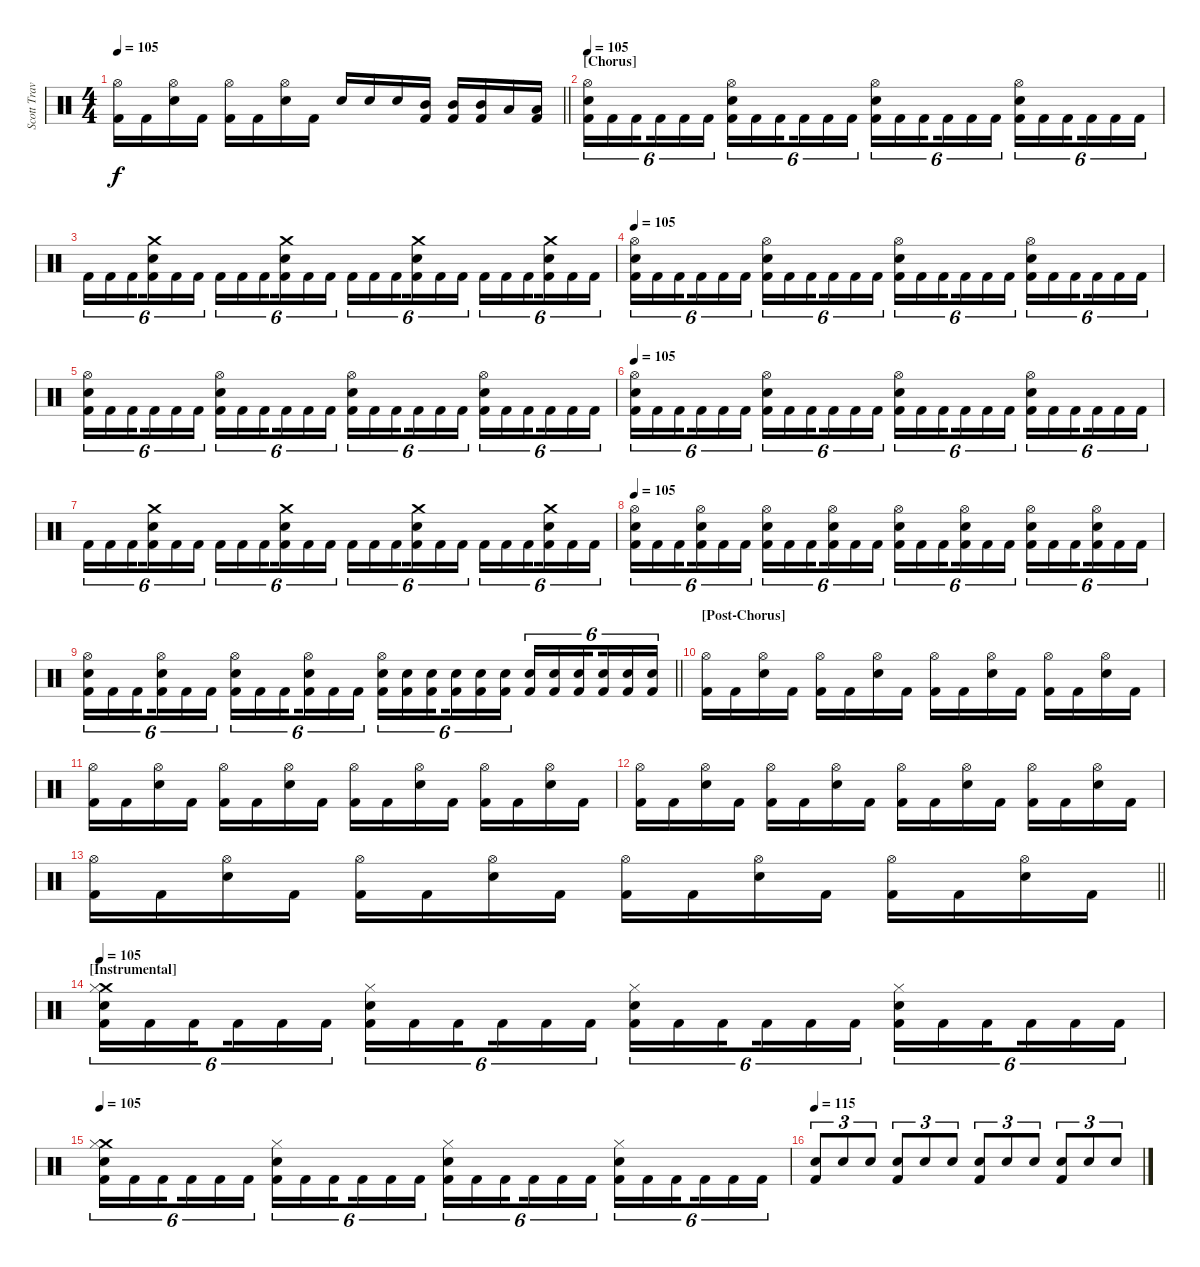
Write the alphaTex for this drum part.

\track ("Scott Travis" "Scott Trav") {instrument percussion}
\staff {score}
\articulation defaults
\ts (4 4)
\tempo 105
\clef neutral
\barLineRight lightlight
\ks c
("Hi-Hat (open)" "Kick (hit) 2").16{dy f} "Kick (hit) 2".16 ("Hi-Hat (open)" "Snare (hit) 2").16 "Kick (hit) 2".16 ("Hi-Hat (open)" "Kick (hit) 2").16 "Kick (hit) 2".16 ("Hi-Hat (open)" "Snare (hit) 2").16 "Kick (hit) 2".16 "Snare (hit) 2".16 "Snare (hit) 2".16 "Snare (hit) 2".16 ("Mid Tom (hit)" "Kick (hit) 2").16 ("Mid Tom (hit)" "Kick (hit) 2").16 ("Mid Tom (hit)" "Kick (hit) 2").16 "Low Tom (hit)".16 ("Low Tom (hit)" "Kick (hit) 2").16 |
\section ("" "[Chorus]")
\tempo 105
("Hi-Hat (open)" "Snare (hit) 2" "Kick (hit) 2").16{tu (6 4)} "Kick (hit) 2".16{tu (6 4)} "Kick (hit) 2".16{tu (6 4) beam splitsecondary} "Kick (hit) 2".16{tu (6 4)} "Kick (hit) 2".16{tu (6 4)} "Kick (hit) 2".16{tu (6 4)} ("Hi-Hat (open)" "Snare (hit) 2" "Kick (hit) 2").16{tu (6 4)} "Kick (hit) 2".16{tu (6 4)} "Kick (hit) 2".16{tu (6 4) beam splitsecondary} "Kick (hit) 2".16{tu (6 4)} "Kick (hit) 2".16{tu (6 4)} "Kick (hit) 2".16{tu (6 4)} ("Hi-Hat (open)" "Snare (hit) 2" "Kick (hit) 2").16{tu (6 4)} "Kick (hit) 2".16{tu (6 4)} "Kick (hit) 2".16{tu (6 4) beam splitsecondary} "Kick (hit) 2".16{tu (6 4)} "Kick (hit) 2".16{tu (6 4)} "Kick (hit) 2".16{tu (6 4)} ("Hi-Hat (open)" "Snare (hit) 2" "Kick (hit) 2").16{tu (6 4)} "Kick (hit) 2".16{tu (6 4)} "Kick (hit) 2".16{tu (6 4) beam splitsecondary} "Kick (hit) 2".16{tu (6 4)} "Kick (hit) 2".16{tu (6 4)} "Kick (hit) 2".16{tu (6 4)} |
"Kick (hit) 2".16{tu (6 4)} "Kick (hit) 2".16{tu (6 4)} "Kick (hit) 2".16{tu (6 4) beam splitsecondary} ("Crash medium (hit)" "Snare (hit) 2" "Kick (hit) 2").16{tu (6 4)} "Kick (hit) 2".16{tu (6 4)} "Kick (hit) 2".16{tu (6 4)} "Kick (hit) 2".16{tu (6 4)} "Kick (hit) 2".16{tu (6 4)} "Kick (hit) 2".16{tu (6 4) beam splitsecondary} ("Crash medium (hit)" "Snare (hit) 2" "Kick (hit) 2").16{tu (6 4)} "Kick (hit) 2".16{tu (6 4)} "Kick (hit) 2".16{tu (6 4)} "Kick (hit) 2".16{tu (6 4)} "Kick (hit) 2".16{tu (6 4)} "Kick (hit) 2".16{tu (6 4) beam splitsecondary} ("Crash medium (hit)" "Snare (hit) 2" "Kick (hit) 2").16{tu (6 4)} "Kick (hit) 2".16{tu (6 4)} "Kick (hit) 2".16{tu (6 4)} "Kick (hit) 2".16{tu (6 4)} "Kick (hit) 2".16{tu (6 4)} "Kick (hit) 2".16{tu (6 4) beam splitsecondary} ("Snare (hit) 2" "Crash medium (hit)" "Kick (hit) 2").16{tu (6 4)} "Kick (hit) 2".16{tu (6 4)} "Kick (hit) 2".16{tu (6 4)} |
\tempo 105
("Hi-Hat (open)" "Snare (hit) 2" "Kick (hit) 2").16{tu (6 4)} "Kick (hit) 2".16{tu (6 4)} "Kick (hit) 2".16{tu (6 4) beam splitsecondary} "Kick (hit) 2".16{tu (6 4)} "Kick (hit) 2".16{tu (6 4)} "Kick (hit) 2".16{tu (6 4)} ("Hi-Hat (open)" "Snare (hit) 2" "Kick (hit) 2").16{tu (6 4)} "Kick (hit) 2".16{tu (6 4)} "Kick (hit) 2".16{tu (6 4) beam splitsecondary} "Kick (hit) 2".16{tu (6 4)} "Kick (hit) 2".16{tu (6 4)} "Kick (hit) 2".16{tu (6 4)} ("Hi-Hat (open)" "Snare (hit) 2" "Kick (hit) 2").16{tu (6 4)} "Kick (hit) 2".16{tu (6 4)} "Kick (hit) 2".16{tu (6 4) beam splitsecondary} "Kick (hit) 2".16{tu (6 4)} "Kick (hit) 2".16{tu (6 4)} "Kick (hit) 2".16{tu (6 4)} ("Hi-Hat (open)" "Snare (hit) 2" "Kick (hit) 2").16{tu (6 4)} "Kick (hit) 2".16{tu (6 4)} "Kick (hit) 2".16{tu (6 4) beam splitsecondary} "Kick (hit) 2".16{tu (6 4)} "Kick (hit) 2".16{tu (6 4)} "Kick (hit) 2".16{tu (6 4)} |
("Hi-Hat (open)" "Snare (hit) 2" "Kick (hit) 2").16{tu (6 4)} "Kick (hit) 2".16{tu (6 4)} "Kick (hit) 2".16{tu (6 4) beam splitsecondary} "Kick (hit) 2".16{tu (6 4)} "Kick (hit) 2".16{tu (6 4)} "Kick (hit) 2".16{tu (6 4)} ("Hi-Hat (open)" "Snare (hit) 2" "Kick (hit) 2").16{tu (6 4)} "Kick (hit) 2".16{tu (6 4)} "Kick (hit) 2".16{tu (6 4) beam splitsecondary} "Kick (hit) 2".16{tu (6 4)} "Kick (hit) 2".16{tu (6 4)} "Kick (hit) 2".16{tu (6 4)} ("Hi-Hat (open)" "Snare (hit) 2" "Kick (hit) 2").16{tu (6 4)} "Kick (hit) 2".16{tu (6 4)} "Kick (hit) 2".16{tu (6 4) beam splitsecondary} "Kick (hit) 2".16{tu (6 4)} "Kick (hit) 2".16{tu (6 4)} "Kick (hit) 2".16{tu (6 4)} ("Hi-Hat (open)" "Snare (hit) 2" "Kick (hit) 2").16{tu (6 4)} "Kick (hit) 2".16{tu (6 4)} "Kick (hit) 2".16{tu (6 4) beam splitsecondary} "Kick (hit) 2".16{tu (6 4)} "Kick (hit) 2".16{tu (6 4)} "Kick (hit) 2".16{tu (6 4)} |
\tempo 105
("Hi-Hat (open)" "Snare (hit) 2" "Kick (hit) 2").16{tu (6 4)} "Kick (hit) 2".16{tu (6 4)} "Kick (hit) 2".16{tu (6 4) beam splitsecondary} "Kick (hit) 2".16{tu (6 4)} "Kick (hit) 2".16{tu (6 4)} "Kick (hit) 2".16{tu (6 4)} ("Hi-Hat (open)" "Snare (hit) 2" "Kick (hit) 2").16{tu (6 4)} "Kick (hit) 2".16{tu (6 4)} "Kick (hit) 2".16{tu (6 4) beam splitsecondary} "Kick (hit) 2".16{tu (6 4)} "Kick (hit) 2".16{tu (6 4)} "Kick (hit) 2".16{tu (6 4)} ("Hi-Hat (open)" "Snare (hit) 2" "Kick (hit) 2").16{tu (6 4)} "Kick (hit) 2".16{tu (6 4)} "Kick (hit) 2".16{tu (6 4) beam splitsecondary} "Kick (hit) 2".16{tu (6 4)} "Kick (hit) 2".16{tu (6 4)} "Kick (hit) 2".16{tu (6 4)} ("Hi-Hat (open)" "Snare (hit) 2" "Kick (hit) 2").16{tu (6 4)} "Kick (hit) 2".16{tu (6 4)} "Kick (hit) 2".16{tu (6 4) beam splitsecondary} "Kick (hit) 2".16{tu (6 4)} "Kick (hit) 2".16{tu (6 4)} "Kick (hit) 2".16{tu (6 4)} |
"Kick (hit) 2".16{tu (6 4)} "Kick (hit) 2".16{tu (6 4)} "Kick (hit) 2".16{tu (6 4) beam splitsecondary} ("Crash medium (hit)" "Snare (hit) 2" "Kick (hit) 2").16{tu (6 4)} "Kick (hit) 2".16{tu (6 4)} "Kick (hit) 2".16{tu (6 4)} "Kick (hit) 2".16{tu (6 4)} "Kick (hit) 2".16{tu (6 4)} "Kick (hit) 2".16{tu (6 4) beam splitsecondary} ("Crash medium (hit)" "Snare (hit) 2" "Kick (hit) 2").16{tu (6 4)} "Kick (hit) 2".16{tu (6 4)} "Kick (hit) 2".16{tu (6 4)} "Kick (hit) 2".16{tu (6 4)} "Kick (hit) 2".16{tu (6 4)} "Kick (hit) 2".16{tu (6 4) beam splitsecondary} ("Crash medium (hit)" "Snare (hit) 2" "Kick (hit) 2").16{tu (6 4)} "Kick (hit) 2".16{tu (6 4)} "Kick (hit) 2".16{tu (6 4)} "Kick (hit) 2".16{tu (6 4)} "Kick (hit) 2".16{tu (6 4)} "Kick (hit) 2".16{tu (6 4) beam splitsecondary} ("Snare (hit) 2" "Crash medium (hit)" "Kick (hit) 2").16{tu (6 4)} "Kick (hit) 2".16{tu (6 4)} "Kick (hit) 2".16{tu (6 4)} |
\tempo 105
("Hi-Hat (open)" "Snare (hit) 2" "Kick (hit) 2").16{tu (6 4)} "Kick (hit) 2".16{tu (6 4)} "Kick (hit) 2".16{tu (6 4) beam splitsecondary} ("Hi-Hat (open)" "Snare (hit) 2" "Kick (hit) 2").16{tu (6 4)} "Kick (hit) 2".16{tu (6 4)} "Kick (hit) 2".16{tu (6 4)} ("Hi-Hat (open)" "Snare (hit) 2" "Kick (hit) 2").16{tu (6 4)} "Kick (hit) 2".16{tu (6 4)} "Kick (hit) 2".16{tu (6 4) beam splitsecondary} ("Hi-Hat (open)" "Snare (hit) 2" "Kick (hit) 2").16{tu (6 4)} "Kick (hit) 2".16{tu (6 4)} "Kick (hit) 2".16{tu (6 4)} ("Hi-Hat (open)" "Snare (hit) 2" "Kick (hit) 2").16{tu (6 4)} "Kick (hit) 2".16{tu (6 4)} "Kick (hit) 2".16{tu (6 4) beam splitsecondary} ("Hi-Hat (open)" "Snare (hit) 2" "Kick (hit) 2").16{tu (6 4)} "Kick (hit) 2".16{tu (6 4)} "Kick (hit) 2".16{tu (6 4)} ("Hi-Hat (open)" "Snare (hit) 2" "Kick (hit) 2").16{tu (6 4)} "Kick (hit) 2".16{tu (6 4)} "Kick (hit) 2".16{tu (6 4) beam splitsecondary} ("Hi-Hat (open)" "Snare (hit) 2" "Kick (hit) 2").16{tu (6 4)} "Kick (hit) 2".16{tu (6 4)} "Kick (hit) 2".16{tu (6 4)} |
\barLineRight lightlight
("Hi-Hat (open)" "Snare (hit) 2" "Kick (hit) 2").16{tu (6 4)} "Kick (hit) 2".16{tu (6 4)} "Kick (hit) 2".16{tu (6 4) beam splitsecondary} ("Snare (hit) 2" "Hi-Hat (open)" "Kick (hit) 2").16{tu (6 4)} "Kick (hit) 2".16{tu (6 4)} "Kick (hit) 2".16{tu (6 4)} ("Hi-Hat (open)" "Snare (hit) 2" "Kick (hit) 2").16{tu (6 4)} "Kick (hit) 2".16{tu (6 4)} "Kick (hit) 2".16{tu (6 4) beam splitsecondary} ("Hi-Hat (open)" "Snare (hit) 2" "Kick (hit) 2").16{tu (6 4)} "Kick (hit) 2".16{tu (6 4)} "Kick (hit) 2".16{tu (6 4)} ("Hi-Hat (open)" "Snare (hit) 2" "Kick (hit) 2").16{tu (6 4)} ("Snare (hit) 2" "Kick (hit) 2").16{tu (6 4)} ("Snare (hit) 2" "Kick (hit) 2").16{tu (6 4) beam splitsecondary} ("Snare (hit) 2" "Kick (hit) 2").16{tu (6 4)} ("Snare (hit) 2" "Kick (hit) 2").16{tu (6 4)} ("Snare (hit) 2" "Kick (hit) 2").16{tu (6 4)} ("Snare (hit) 2" "Kick (hit) 2").16{tu (6 4)} ("Snare (hit) 2" "Kick (hit) 2").16{tu (6 4)} ("Snare (hit) 2" "Kick (hit) 2").16{tu (6 4) beam splitsecondary} ("Snare (hit) 2" "Kick (hit) 2").16{tu (6 4)} ("Snare (hit) 2" "Kick (hit) 2").16{tu (6 4)} ("Snare (hit) 2" "Kick (hit) 2").16{tu (6 4)} |
\section ("" "[Post-Chorus]")
("Hi-Hat (open)" "Kick (hit) 2").16 "Kick (hit) 2".16 ("Hi-Hat (open)" "Snare (hit) 2").16 "Kick (hit) 2".16 ("Hi-Hat (open)" "Kick (hit) 2").16 "Kick (hit) 2".16 ("Hi-Hat (open)" "Snare (hit) 2").16 "Kick (hit) 2".16 ("Hi-Hat (open)" "Kick (hit) 2").16 "Kick (hit) 2".16 ("Hi-Hat (open)" "Snare (hit) 2").16 "Kick (hit) 2".16 ("Hi-Hat (open)" "Kick (hit) 2").16 "Kick (hit) 2".16 ("Hi-Hat (open)" "Snare (hit) 2").16 "Kick (hit) 2".16 |
("Hi-Hat (open)" "Kick (hit) 2").16 "Kick (hit) 2".16 ("Hi-Hat (open)" "Snare (hit) 2").16 "Kick (hit) 2".16 ("Hi-Hat (open)" "Kick (hit) 2").16 "Kick (hit) 2".16 ("Hi-Hat (open)" "Snare (hit) 2").16 "Kick (hit) 2".16 ("Hi-Hat (open)" "Kick (hit) 2").16 "Kick (hit) 2".16 ("Hi-Hat (open)" "Snare (hit) 2").16 "Kick (hit) 2".16 ("Hi-Hat (open)" "Kick (hit) 2").16 "Kick (hit) 2".16 ("Hi-Hat (open)" "Snare (hit) 2").16 "Kick (hit) 2".16 |
("Hi-Hat (open)" "Kick (hit) 2").16 "Kick (hit) 2".16 ("Hi-Hat (open)" "Snare (hit) 2").16 "Kick (hit) 2".16 ("Hi-Hat (open)" "Kick (hit) 2").16 "Kick (hit) 2".16 ("Hi-Hat (open)" "Snare (hit) 2").16 "Kick (hit) 2".16 ("Hi-Hat (open)" "Kick (hit) 2").16 "Kick (hit) 2".16 ("Hi-Hat (open)" "Snare (hit) 2").16 "Kick (hit) 2".16 ("Hi-Hat (open)" "Kick (hit) 2").16 "Kick (hit) 2".16 ("Hi-Hat (open)" "Snare (hit) 2").16 "Kick (hit) 2".16 |
\barLineRight lightlight
("Hi-Hat (open)" "Kick (hit) 2").16 "Kick (hit) 2".16 ("Hi-Hat (open)" "Snare (hit) 2").16 "Kick (hit) 2".16 ("Hi-Hat (open)" "Kick (hit) 2").16 "Kick (hit) 2".16 ("Hi-Hat (open)" "Snare (hit) 2").16 "Kick (hit) 2".16 ("Hi-Hat (open)" "Kick (hit) 2").16 "Kick (hit) 2".16 ("Hi-Hat (open)" "Snare (hit) 2").16 "Kick (hit) 2".16 ("Hi-Hat (open)" "Kick (hit) 2").16 "Kick (hit) 2".16 ("Hi-Hat (open)" "Snare (hit) 2").16 "Kick (hit) 2".16 |
\section ("" "[Instrumental]")
\tempo 105
("Crash medium (hit)" "Hi-Hat (closed)" "Snare (hit) 2" "Kick (hit) 2").16{tu (6 4)} "Kick (hit) 2".16{tu (6 4)} "Kick (hit) 2".16{tu (6 4) beam splitsecondary} "Kick (hit) 2".16{tu (6 4)} "Kick (hit) 2".16{tu (6 4)} "Kick (hit) 2".16{tu (6 4)} ("Hi-Hat (closed)" "Snare (hit) 2" "Kick (hit) 2").16{tu (6 4)} "Kick (hit) 2".16{tu (6 4)} "Kick (hit) 2".16{tu (6 4) beam splitsecondary} "Kick (hit) 2".16{tu (6 4)} "Kick (hit) 2".16{tu (6 4)} "Kick (hit) 2".16{tu (6 4)} ("Hi-Hat (closed)" "Snare (hit) 2" "Kick (hit) 2").16{tu (6 4)} "Kick (hit) 2".16{tu (6 4)} "Kick (hit) 2".16{tu (6 4) beam splitsecondary} "Kick (hit) 2".16{tu (6 4)} "Kick (hit) 2".16{tu (6 4)} "Kick (hit) 2".16{tu (6 4)} ("Hi-Hat (closed)" "Snare (hit) 2" "Kick (hit) 2").16{tu (6 4)} "Kick (hit) 2".16{tu (6 4)} "Kick (hit) 2".16{tu (6 4) beam splitsecondary} "Kick (hit) 2".16{tu (6 4)} "Kick (hit) 2".16{tu (6 4)} "Kick (hit) 2".16{tu (6 4)} |
\tempo 105
("Crash medium (hit)" "Hi-Hat (closed)" "Snare (hit) 2" "Kick (hit) 2").16{tu (6 4)} "Kick (hit) 2".16{tu (6 4)} "Kick (hit) 2".16{tu (6 4) beam splitsecondary} "Kick (hit) 2".16{tu (6 4)} "Kick (hit) 2".16{tu (6 4)} "Kick (hit) 2".16{tu (6 4)} ("Hi-Hat (closed)" "Snare (hit) 2" "Kick (hit) 2").16{tu (6 4)} "Kick (hit) 2".16{tu (6 4)} "Kick (hit) 2".16{tu (6 4) beam splitsecondary} "Kick (hit) 2".16{tu (6 4)} "Kick (hit) 2".16{tu (6 4)} "Kick (hit) 2".16{tu (6 4)} ("Hi-Hat (closed)" "Snare (hit) 2" "Kick (hit) 2").16{tu (6 4)} "Kick (hit) 2".16{tu (6 4)} "Kick (hit) 2".16{tu (6 4) beam splitsecondary} "Kick (hit) 2".16{tu (6 4)} "Kick (hit) 2".16{tu (6 4)} "Kick (hit) 2".16{tu (6 4)} ("Hi-Hat (closed)" "Snare (hit) 2" "Kick (hit) 2").16{tu (6 4)} "Kick (hit) 2".16{tu (6 4)} "Kick (hit) 2".16{tu (6 4) beam splitsecondary} "Kick (hit) 2".16{tu (6 4)} "Kick (hit) 2".16{tu (6 4)} "Kick (hit) 2".16{tu (6 4)} |
\tempo 115
("Kick (hit) 2" "Snare (hit) 2").8{tu (3 2)} "Snare (hit) 2".8{tu (3 2)} "Snare (hit) 2".8{tu (3 2)} ("Kick (hit) 2" "Snare (hit) 2").8{tu (3 2)} "Snare (hit) 2".8{tu (3 2)} "Snare (hit) 2".8{tu (3 2)} ("Kick (hit) 2" "Snare (hit) 2").8{tu (3 2)} "Snare (hit) 2".8{tu (3 2)} "Snare (hit) 2".8{tu (3 2)} ("Kick (hit) 2" "Snare (hit) 2").8{tu (3 2)} "Snare (hit) 2".8{tu (3 2)} "Snare (hit) 2".8{tu (3 2)}
